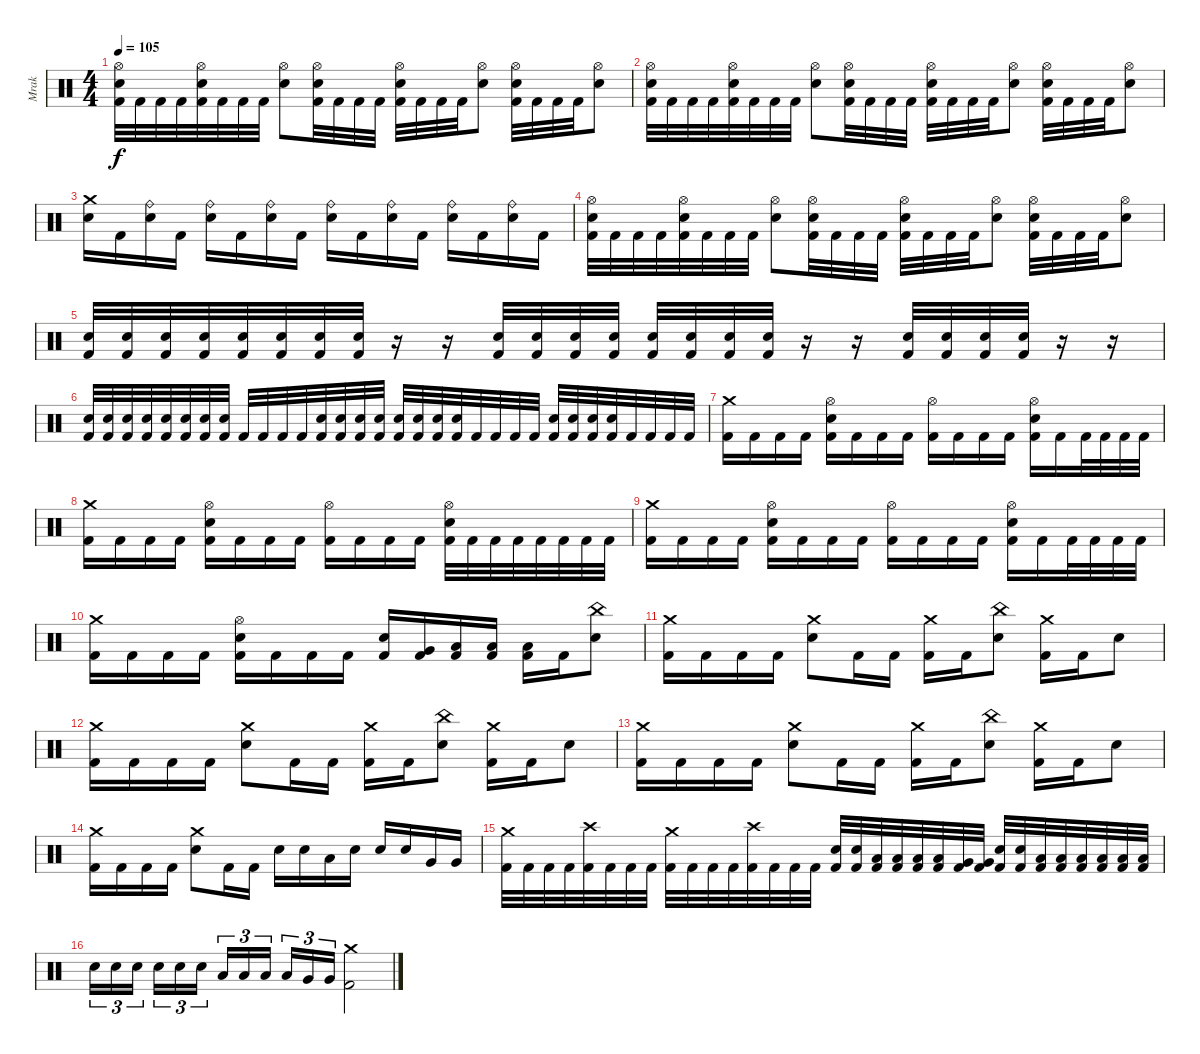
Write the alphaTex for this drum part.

\track ("Mrak" "Mrak") {instrument percussion}
\staff {score}
\articulation defaults
\ts (4 4)
\tempo 105
\clef neutral
\ks c
("Hi-Hat (open)" "Electric Snare (hit)" "Kick (hit) 2").32{dy f} "Kick (hit) 2".32 "Kick (hit) 2".32 "Kick (hit) 2".32 ("Hi-Hat (open)" "Electric Snare (hit)" "Kick (hit) 2").32 "Kick (hit) 2".32 "Kick (hit) 2".32 "Kick (hit) 2".32 ("Hi-Hat (open)" "Electric Snare (hit)").8 ("Hi-Hat (open)" "Electric Snare (hit)" "Kick (hit) 2").32 "Kick (hit) 2".32 "Kick (hit) 2".32 "Kick (hit) 2".32 ("Hi-Hat (open)" "Electric Snare (hit)" "Kick (hit) 2").32 "Kick (hit) 2".32 "Kick (hit) 2".32 "Kick (hit) 2".32 ("Hi-Hat (open)" "Electric Snare (hit)").8 ("Hi-Hat (open)" "Electric Snare (hit)" "Kick (hit) 2").32 "Kick (hit) 2".32 "Kick (hit) 2".32 "Kick (hit) 2".32 ("Hi-Hat (open)" "Electric Snare (hit)").8 |
("Hi-Hat (open)" "Electric Snare (hit)" "Kick (hit) 2").32 "Kick (hit) 2".32 "Kick (hit) 2".32 "Kick (hit) 2".32 ("Hi-Hat (open)" "Electric Snare (hit)" "Kick (hit) 2").32 "Kick (hit) 2".32 "Kick (hit) 2".32 "Kick (hit) 2".32 ("Hi-Hat (open)" "Electric Snare (hit)").8 ("Hi-Hat (open)" "Electric Snare (hit)" "Kick (hit) 2").32 "Kick (hit) 2".32 "Kick (hit) 2".32 "Kick (hit) 2".32 ("Hi-Hat (open)" "Electric Snare (hit)" "Kick (hit) 2").32 "Kick (hit) 2".32 "Kick (hit) 2".32 "Kick (hit) 2".32 ("Hi-Hat (open)" "Electric Snare (hit)").8 ("Hi-Hat (open)" "Electric Snare (hit)" "Kick (hit) 2").32 "Kick (hit) 2".32 "Kick (hit) 2".32 "Kick (hit) 2".32 ("Hi-Hat (open)" "Electric Snare (hit)").8 |
("Crash medium (hit)" "Electric Snare (hit)").16 "Kick (hit) 2".16 ("Ride (bell)" "Electric Snare (hit)").16 "Kick (hit) 2".16 ("Ride (bell)" "Electric Snare (hit)").16 "Kick (hit) 2".16 ("Ride (bell)" "Electric Snare (hit)").16 "Kick (hit) 2".16 ("Ride (bell)" "Electric Snare (hit)").16 "Kick (hit) 2".16 ("Ride (bell)" "Electric Snare (hit)").16 "Kick (hit) 2".16 ("Ride (bell)" "Electric Snare (hit)").16 "Kick (hit) 2".16 ("Ride (bell)" "Electric Snare (hit)").16 "Kick (hit) 2".16 |
("Hi-Hat (open)" "Electric Snare (hit)" "Kick (hit) 2").32 "Kick (hit) 2".32 "Kick (hit) 2".32 "Kick (hit) 2".32 ("Hi-Hat (open)" "Electric Snare (hit)" "Kick (hit) 2").32 "Kick (hit) 2".32 "Kick (hit) 2".32 "Kick (hit) 2".32 ("Hi-Hat (open)" "Electric Snare (hit)").8 ("Hi-Hat (open)" "Electric Snare (hit)" "Kick (hit) 2").32 "Kick (hit) 2".32 "Kick (hit) 2".32 "Kick (hit) 2".32 ("Hi-Hat (open)" "Electric Snare (hit)" "Kick (hit) 2").32 "Kick (hit) 2".32 "Kick (hit) 2".32 "Kick (hit) 2".32 ("Hi-Hat (open)" "Electric Snare (hit)").8 ("Hi-Hat (open)" "Electric Snare (hit)" "Kick (hit) 2").32 "Kick (hit) 2".32 "Kick (hit) 2".32 "Kick (hit) 2".32 ("Hi-Hat (open)" "Electric Snare (hit)").8 |
("Electric Snare (hit)" "Kick (hit) 2").32 ("Electric Snare (hit)" "Kick (hit) 2").32 ("Electric Snare (hit)" "Kick (hit) 2").32 ("Electric Snare (hit)" "Kick (hit) 2").32 ("Electric Snare (hit)" "Kick (hit) 2").32 ("Electric Snare (hit)" "Kick (hit) 2").32 ("Electric Snare (hit)" "Kick (hit) 2").32 ("Electric Snare (hit)" "Kick (hit) 2").32 r.16 r.16 ("Electric Snare (hit)" "Kick (hit) 2").32 ("Electric Snare (hit)" "Kick (hit) 2").32 ("Electric Snare (hit)" "Kick (hit) 2").32 ("Electric Snare (hit)" "Kick (hit) 2").32 ("Electric Snare (hit)" "Kick (hit) 2").32 ("Electric Snare (hit)" "Kick (hit) 2").32 ("Electric Snare (hit)" "Kick (hit) 2").32 ("Electric Snare (hit)" "Kick (hit) 2").32 r.16 r.16 ("Electric Snare (hit)" "Kick (hit) 2").32 ("Electric Snare (hit)" "Kick (hit) 2").32 ("Electric Snare (hit)" "Kick (hit) 2").32 ("Electric Snare (hit)" "Kick (hit) 2").32 r.16 r.16 |
("Electric Snare (hit)" "Kick (hit) 2").32 ("Electric Snare (hit)" "Kick (hit) 2").32 ("Electric Snare (hit)" "Kick (hit) 2").32 ("Electric Snare (hit)" "Kick (hit) 2").32 ("Electric Snare (hit)" "Kick (hit) 2").32 ("Electric Snare (hit)" "Kick (hit) 2").32 ("Electric Snare (hit)" "Kick (hit) 2").32 ("Electric Snare (hit)" "Kick (hit) 2").32 "Kick (hit) 2".32 "Kick (hit) 2".32 "Kick (hit) 2".32 "Kick (hit) 2".32 ("Electric Snare (hit)" "Kick (hit) 2").32 ("Electric Snare (hit)" "Kick (hit) 2").32 ("Electric Snare (hit)" "Kick (hit) 2").32 ("Electric Snare (hit)" "Kick (hit) 2").32 ("Electric Snare (hit)" "Kick (hit) 2").32 ("Electric Snare (hit)" "Kick (hit) 2").32 ("Electric Snare (hit)" "Kick (hit) 2").32 ("Electric Snare (hit)" "Kick (hit) 2").32 "Kick (hit) 2".32 "Kick (hit) 2".32 "Kick (hit) 2".32 "Kick (hit) 2".32 ("Electric Snare (hit)" "Kick (hit) 2").32 ("Electric Snare (hit)" "Kick (hit) 2").32 ("Electric Snare (hit)" "Kick (hit) 2").32 ("Electric Snare (hit)" "Kick (hit) 2").32 "Kick (hit) 2".32 "Kick (hit) 2".32 "Kick (hit) 2".32 "Kick (hit) 2".32 |
("Crash medium (hit)" "Kick (hit) 2").16 "Kick (hit) 2".16 "Kick (hit) 2".16 "Kick (hit) 2".16 ("Hi-Hat (open)" "Electric Snare (hit)" "Kick (hit) 2").16 "Kick (hit) 2".16 "Kick (hit) 2".16 "Kick (hit) 2".16 ("Hi-Hat (open)" "Kick (hit) 2").16 "Kick (hit) 2".16 "Kick (hit) 2".16 "Kick (hit) 2".16 ("Hi-Hat (open)" "Electric Snare (hit)" "Kick (hit) 2").16 "Kick (hit) 2".16 "Kick (hit) 2".32 "Kick (hit) 2".32 "Kick (hit) 2".32 "Kick (hit) 2".32 |
("Crash medium (hit)" "Kick (hit) 2").16 "Kick (hit) 2".16 "Kick (hit) 2".16 "Kick (hit) 2".16 ("Hi-Hat (open)" "Electric Snare (hit)" "Kick (hit) 2").16 "Kick (hit) 2".16 "Kick (hit) 2".16 "Kick (hit) 2".16 ("Hi-Hat (open)" "Kick (hit) 2").16 "Kick (hit) 2".16 "Kick (hit) 2".16 "Kick (hit) 2".16 ("Hi-Hat (open)" "Electric Snare (hit)" "Kick (hit) 2").32 "Kick (hit) 2".32 "Kick (hit) 2".32 "Kick (hit) 2".32 "Kick (hit) 2".32 "Kick (hit) 2".32 "Kick (hit) 2".32 "Kick (hit) 2".32 |
("Crash medium (hit)" "Kick (hit) 2").16 "Kick (hit) 2".16 "Kick (hit) 2".16 "Kick (hit) 2".16 ("Hi-Hat (open)" "Electric Snare (hit)" "Kick (hit) 2").16 "Kick (hit) 2".16 "Kick (hit) 2".16 "Kick (hit) 2".16 ("Hi-Hat (open)" "Kick (hit) 2").16 "Kick (hit) 2".16 "Kick (hit) 2".16 "Kick (hit) 2".16 ("Hi-Hat (open)" "Electric Snare (hit)" "Kick (hit) 2").16 "Kick (hit) 2".16 "Kick (hit) 2".32 "Kick (hit) 2".32 "Kick (hit) 2".32 "Kick (hit) 2".32 |
("Crash medium (hit)" "Kick (hit) 2").16 "Kick (hit) 2".16 "Kick (hit) 2".16 "Kick (hit) 2".16 ("Hi-Hat (open)" "Electric Snare (hit)" "Kick (hit) 2").16 "Kick (hit) 2".16 "Kick (hit) 2".16 "Kick (hit) 2".16 ("Electric Snare (hit)" "Kick (hit) 2").16 ("Very Low Tom (hit)" "Kick (hit) 2").16 ("Low Tom (hit)" "Kick (hit) 2").16 ("Low Floor Tom (hit)" "Kick (hit) 2").16 ("Low Tom (hit)" "Kick (hit) 2").16 "Kick (hit) 2".16 ("China (hit)" "Electric Snare (hit)").8 |
("Crash medium (hit)" "Kick (hit) 2").16 "Kick (hit) 2".16 "Kick (hit) 2".16 "Kick (hit) 2".16 ("Crash medium (hit)" "Electric Snare (hit)").8 "Kick (hit) 2".16 "Kick (hit) 2".16 ("Crash medium (hit)" "Kick (hit) 2").16 "Kick (hit) 2".16 ("China (hit)" "Electric Snare (hit)").8 ("Crash medium (hit)" "Kick (hit) 2").16 "Kick (hit) 2".16 "Electric Snare (hit)".8 |
("Crash medium (hit)" "Kick (hit) 2").16 "Kick (hit) 2".16 "Kick (hit) 2".16 "Kick (hit) 2".16 ("Crash medium (hit)" "Electric Snare (hit)").8 "Kick (hit) 2".16 "Kick (hit) 2".16 ("Crash medium (hit)" "Kick (hit) 2").16 "Kick (hit) 2".16 ("China (hit)" "Electric Snare (hit)").8 ("Crash medium (hit)" "Kick (hit) 2").16 "Kick (hit) 2".16 "Electric Snare (hit)".8 |
("Crash medium (hit)" "Kick (hit) 2").16 "Kick (hit) 2".16 "Kick (hit) 2".16 "Kick (hit) 2".16 ("Crash medium (hit)" "Electric Snare (hit)").8 "Kick (hit) 2".16 "Kick (hit) 2".16 ("Crash medium (hit)" "Kick (hit) 2").16 "Kick (hit) 2".16 ("China (hit)" "Electric Snare (hit)").8 ("Crash medium (hit)" "Kick (hit) 2").16 "Kick (hit) 2".16 "Electric Snare (hit)".8 |
("Crash medium (hit)" "Kick (hit) 2").16 "Kick (hit) 2".16 "Kick (hit) 2".16 "Kick (hit) 2".16 ("Crash medium (hit)" "Electric Snare (hit)").8 "Kick (hit) 2".16 "Kick (hit) 2".16 "Electric Snare (hit)".16 "Electric Snare (hit)".16 "Low Tom (hit)".16 "Electric Snare (hit)".16 "Electric Snare (hit)".16 "Electric Snare (hit)".16 "Very Low Tom (hit)".16 "Very Low Tom (hit)".16 |
("Crash medium (hit)" "Kick (hit) 2").32 "Kick (hit) 2".32 "Kick (hit) 2".32 "Kick (hit) 2".32 ("Crash high (hit)" "Kick (hit) 2").32 "Kick (hit) 2".32 "Kick (hit) 2".32 "Kick (hit) 2".32 ("Crash medium (hit)" "Kick (hit) 2").32 "Kick (hit) 2".32 "Kick (hit) 2".32 "Kick (hit) 2".32 ("Crash high (hit)" "Kick (hit) 2").32 "Kick (hit) 2".32 "Kick (hit) 2".32 "Kick (hit) 2".32 ("Electric Snare (hit)" "Kick (hit) 2").32 ("Electric Snare (hit)" "Kick (hit) 2").32 ("Low Tom (hit)" "Kick (hit) 2").32 ("Low Tom (hit)" "Kick (hit) 2").32 ("Low Tom (hit)" "Kick (hit) 2").32 ("Low Tom (hit)" "Kick (hit) 2").32 ("Very Low Tom (hit)" "Kick (hit) 2").32 ("Very Low Tom (hit)" "Kick (hit) 2").32 ("Electric Snare (hit)" "Kick (hit) 2").32 ("Electric Snare (hit)" "Kick (hit) 2").32 ("Low Tom (hit)" "Kick (hit) 2").32 ("Low Tom (hit)" "Kick (hit) 2").32 ("Low Floor Tom (hit)" "Kick (hit) 2").32 ("Low Floor Tom (hit)" "Kick (hit) 2").32 ("Low Floor Tom (hit)" "Kick (hit) 2").32 ("Low Floor Tom (hit)" "Kick (hit) 2").32 |
"Electric Snare (hit)".16{tu (3 2)} "Electric Snare (hit)".16{tu (3 2)} "Electric Snare (hit)".16{tu (3 2) beam splitsecondary} "Electric Snare (hit)".16{tu (3 2)} "Electric Snare (hit)".16{tu (3 2)} "Electric Snare (hit)".16{tu (3 2)} "Low Tom (hit)".16{tu (3 2)} "Low Tom (hit)".16{tu (3 2)} "Low Tom (hit)".16{tu (3 2) beam splitsecondary} "Low Tom (hit)".16{tu (3 2)} "Very Low Tom (hit)".16{tu (3 2)} "Very Low Tom (hit)".16{tu (3 2)} ("Crash medium (hit)" "Kick (hit) 2").2
